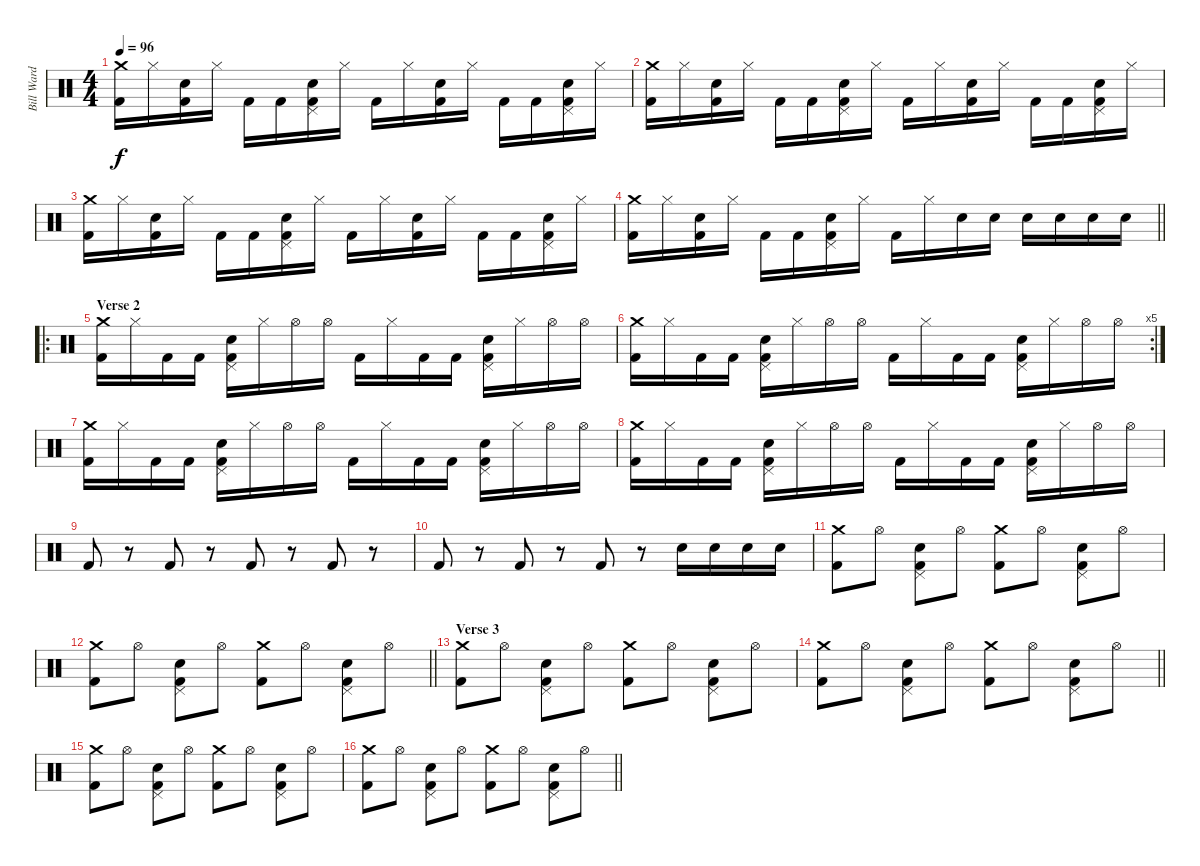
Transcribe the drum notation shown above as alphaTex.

\track ("Bill Ward" "Bill Ward") {instrument percussion}
\staff {score}
\articulation defaults
\ts (4 4)
\tempo 96
\clef neutral
\ks c
("Crash medium (hit)" "Kick (hit) 2").16{dy f} "Hi-Hat (closed)".16 ("Snare (hit) 2" "Kick (hit) 2").16 "Hi-Hat (closed)".16 "Kick (hit) 2".16 "Kick (hit) 2".16 ("Pedal Hi-Hat (hit)" "Snare (hit) 2" "Kick (hit) 2").16 "Hi-Hat (closed)".16 "Kick (hit) 2".16 "Hi-Hat (closed)".16 ("Snare (hit) 2" "Kick (hit) 2").16 "Hi-Hat (closed)".16 "Kick (hit) 2".16 "Kick (hit) 2".16 ("Pedal Hi-Hat (hit)" "Snare (hit) 2" "Kick (hit) 2").16 "Hi-Hat (closed)".16 |
("Crash medium (hit)" "Kick (hit) 2").16 "Hi-Hat (closed)".16 ("Snare (hit) 2" "Kick (hit) 2").16 "Hi-Hat (closed)".16 "Kick (hit) 2".16 "Kick (hit) 2".16 ("Pedal Hi-Hat (hit)" "Snare (hit) 2" "Kick (hit) 2").16 "Hi-Hat (closed)".16 "Kick (hit) 2".16 "Hi-Hat (closed)".16 ("Snare (hit) 2" "Kick (hit) 2").16 "Hi-Hat (closed)".16 "Kick (hit) 2".16 "Kick (hit) 2".16 ("Pedal Hi-Hat (hit)" "Snare (hit) 2" "Kick (hit) 2").16 "Hi-Hat (closed)".16 |
("Crash medium (hit)" "Kick (hit) 2").16 "Hi-Hat (closed)".16 ("Snare (hit) 2" "Kick (hit) 2").16 "Hi-Hat (closed)".16 "Kick (hit) 2".16 "Kick (hit) 2".16 ("Pedal Hi-Hat (hit)" "Snare (hit) 2" "Kick (hit) 2").16 "Hi-Hat (closed)".16 "Kick (hit) 2".16 "Hi-Hat (closed)".16 ("Snare (hit) 2" "Kick (hit) 2").16 "Hi-Hat (closed)".16 "Kick (hit) 2".16 "Kick (hit) 2".16 ("Pedal Hi-Hat (hit)" "Snare (hit) 2" "Kick (hit) 2").16 "Hi-Hat (closed)".16 |
\barLineRight lightlight
("Crash medium (hit)" "Kick (hit) 2").16 "Hi-Hat (closed)".16 ("Snare (hit) 2" "Kick (hit) 2").16 "Hi-Hat (closed)".16 "Kick (hit) 2".16 "Kick (hit) 2".16 ("Pedal Hi-Hat (hit)" "Snare (hit) 2" "Kick (hit) 2").16 "Hi-Hat (closed)".16 "Kick (hit) 2".16 "Hi-Hat (closed)".16 "Snare (hit) 2".16 "Snare (hit) 2".16 "Snare (hit) 2".16 "Snare (hit) 2".16 "Snare (hit) 2".16 "Snare (hit) 2".16 |
\ro
\section ("" "Verse 2")
("Crash medium (hit)" "Kick (hit) 2").16 "Hi-Hat (closed)".16 "Kick (hit) 2".16 "Kick (hit) 2".16 ("Pedal Hi-Hat (hit)" "Snare (hit) 2" "Kick (hit) 2").16 "Hi-Hat (closed)".16 "Hi-Hat (open)".16 "Hi-Hat (open)".16 "Kick (hit) 2".16 "Hi-Hat (closed)".16 "Kick (hit) 2".16 "Kick (hit) 2".16 ("Pedal Hi-Hat (hit)" "Snare (hit) 2" "Kick (hit) 2").16 "Hi-Hat (closed)".16 "Hi-Hat (open)".16 "Hi-Hat (open)".16 |
\rc 5
("Crash medium (hit)" "Kick (hit) 2").16 "Hi-Hat (closed)".16 "Kick (hit) 2".16 "Kick (hit) 2".16 ("Pedal Hi-Hat (hit)" "Snare (hit) 2" "Kick (hit) 2").16 "Hi-Hat (closed)".16 "Hi-Hat (open)".16 "Hi-Hat (open)".16 "Kick (hit) 2".16 "Hi-Hat (closed)".16 "Kick (hit) 2".16 "Kick (hit) 2".16 ("Pedal Hi-Hat (hit)" "Snare (hit) 2" "Kick (hit) 2").16 "Hi-Hat (closed)".16 "Hi-Hat (open)".16 "Hi-Hat (open)".16 |
("Crash medium (hit)" "Kick (hit) 2").16 "Hi-Hat (closed)".16 "Kick (hit) 2".16 "Kick (hit) 2".16 ("Pedal Hi-Hat (hit)" "Snare (hit) 2" "Kick (hit) 2").16 "Hi-Hat (closed)".16 "Hi-Hat (open)".16 "Hi-Hat (open)".16 "Kick (hit) 2".16 "Hi-Hat (closed)".16 "Kick (hit) 2".16 "Kick (hit) 2".16 ("Pedal Hi-Hat (hit)" "Snare (hit) 2" "Kick (hit) 2").16 "Hi-Hat (closed)".16 "Hi-Hat (open)".16 "Hi-Hat (open)".16 |
("Crash medium (hit)" "Kick (hit) 2").16 "Hi-Hat (closed)".16 "Kick (hit) 2".16 "Kick (hit) 2".16 ("Pedal Hi-Hat (hit)" "Snare (hit) 2" "Kick (hit) 2").16 "Hi-Hat (closed)".16 "Hi-Hat (open)".16 "Hi-Hat (open)".16 "Kick (hit) 2".16 "Hi-Hat (closed)".16 "Kick (hit) 2".16 "Kick (hit) 2".16 ("Pedal Hi-Hat (hit)" "Snare (hit) 2" "Kick (hit) 2").16 "Hi-Hat (closed)".16 "Hi-Hat (open)".16 "Hi-Hat (open)".16 |
"Kick (hit) 2".8 r.8 "Kick (hit) 2".8 r.8 "Kick (hit) 2".8 r.8 "Kick (hit) 2".8 r.8 |
"Kick (hit) 2".8 r.8 "Kick (hit) 2".8 r.8 "Kick (hit) 2".8 r.8 "Snare (hit) 2".16 "Snare (hit) 2".16 "Snare (hit) 2".16 "Snare (hit) 2".16 |
("Crash medium (hit)" "Kick (hit) 2").8 "Hi-Hat (open)".8 ("Pedal Hi-Hat (hit)" "Snare (hit) 2" "Kick (hit) 2").8 "Hi-Hat (open)".8 ("Crash medium (hit)" "Kick (hit) 2").8 "Hi-Hat (open)".8 ("Pedal Hi-Hat (hit)" "Snare (hit) 2" "Kick (hit) 2").8 "Hi-Hat (open)".8 |
\barLineRight lightlight
("Crash medium (hit)" "Kick (hit) 2").8 "Hi-Hat (open)".8 ("Pedal Hi-Hat (hit)" "Snare (hit) 2" "Kick (hit) 2").8 "Hi-Hat (open)".8 ("Crash medium (hit)" "Kick (hit) 2").8 "Hi-Hat (open)".8 ("Pedal Hi-Hat (hit)" "Snare (hit) 2" "Kick (hit) 2").8 "Hi-Hat (open)".8 |
\section ("" "Verse 3")
("Crash medium (hit)" "Kick (hit) 2").8 "Hi-Hat (open)".8 ("Pedal Hi-Hat (hit)" "Snare (hit) 2" "Kick (hit) 2").8 "Hi-Hat (open)".8 ("Crash medium (hit)" "Kick (hit) 2").8 "Hi-Hat (open)".8 ("Pedal Hi-Hat (hit)" "Snare (hit) 2" "Kick (hit) 2").8 "Hi-Hat (open)".8 |
\barLineRight lightlight
("Crash medium (hit)" "Kick (hit) 2").8 "Hi-Hat (open)".8 ("Pedal Hi-Hat (hit)" "Snare (hit) 2" "Kick (hit) 2").8 "Hi-Hat (open)".8 ("Crash medium (hit)" "Kick (hit) 2").8 "Hi-Hat (open)".8 ("Pedal Hi-Hat (hit)" "Snare (hit) 2" "Kick (hit) 2").8 "Hi-Hat (open)".8 |
("Crash medium (hit)" "Kick (hit) 2").8 "Hi-Hat (open)".8 ("Pedal Hi-Hat (hit)" "Snare (hit) 2" "Kick (hit) 2").8 "Hi-Hat (open)".8 ("Crash medium (hit)" "Kick (hit) 2").8 "Hi-Hat (open)".8 ("Pedal Hi-Hat (hit)" "Snare (hit) 2" "Kick (hit) 2").8 "Hi-Hat (open)".8 |
\barLineRight lightlight
("Crash medium (hit)" "Kick (hit) 2").8 "Hi-Hat (open)".8 ("Pedal Hi-Hat (hit)" "Snare (hit) 2" "Kick (hit) 2").8 "Hi-Hat (open)".8 ("Crash medium (hit)" "Kick (hit) 2").8 "Hi-Hat (open)".8 ("Pedal Hi-Hat (hit)" "Snare (hit) 2" "Kick (hit) 2").8 "Hi-Hat (open)".8
